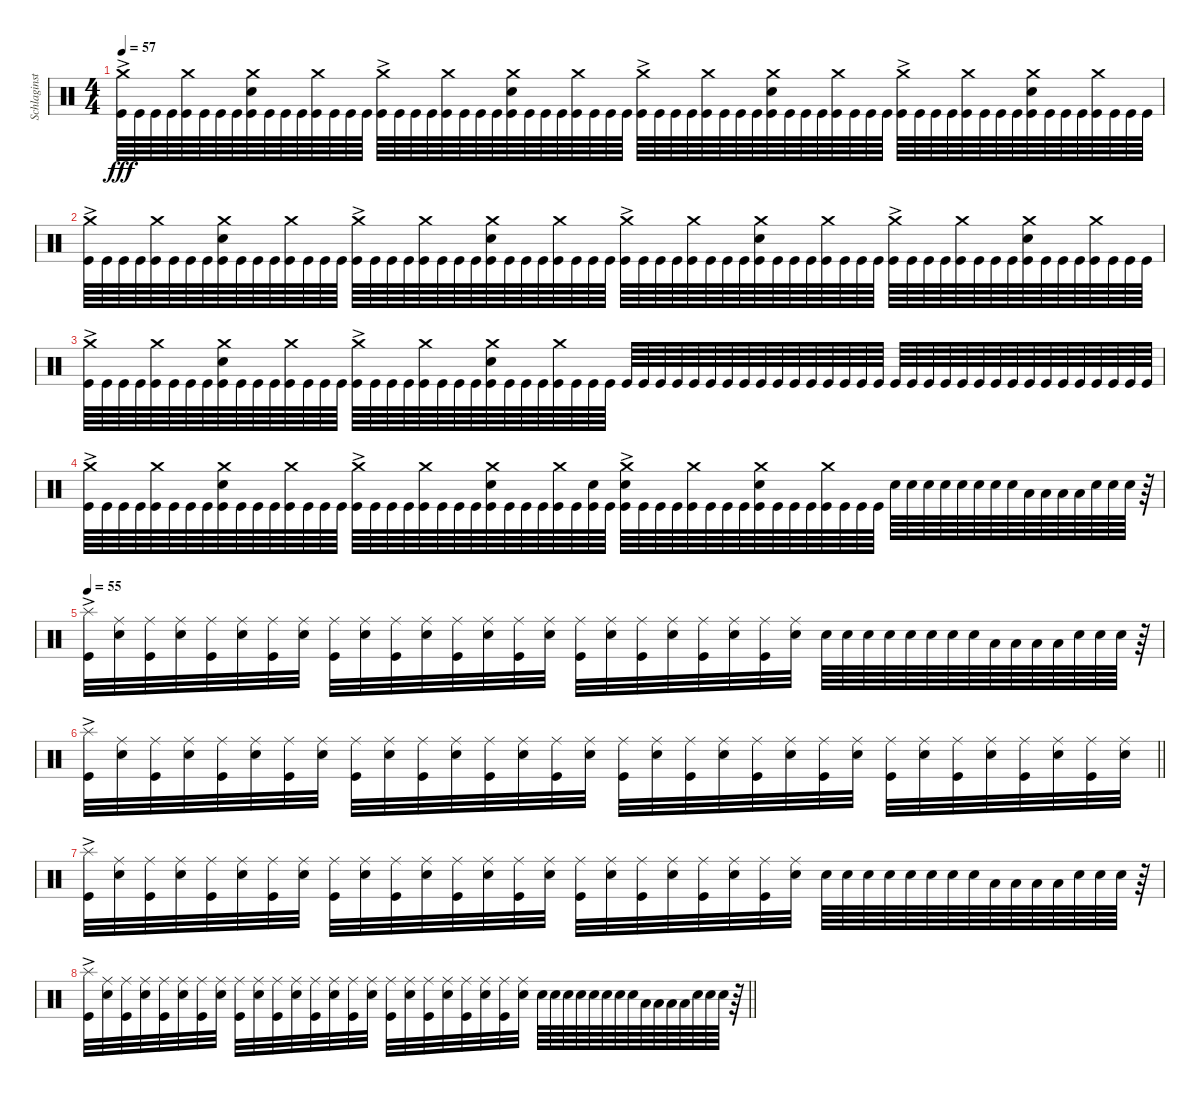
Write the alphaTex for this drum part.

\track ("Schlaginstrumente - Auswahl" "Schlaginst") {instrument percussion}
\staff {score}
\articulation defaults
\ts (4 4)
\tempo 57
\clef neutral
\ks c
("Crash medium (hit)"{ac} "Kick (hit)").64{dy fff} "Kick (hit)".64 "Kick (hit)".64 "Kick (hit)".64 ("Crash medium (hit)" "Kick (hit)").64 "Kick (hit)".64 "Kick (hit)".64 "Kick (hit)".64 ("Crash medium (hit)" "Snare (hit) 2" "Kick (hit)").64 "Kick (hit)".64 "Kick (hit)".64 "Kick (hit)".64 ("Crash medium (hit)" "Kick (hit)").64 "Kick (hit)".64 "Kick (hit)".64 "Kick (hit)".64 ("Crash medium (hit)"{ac} "Kick (hit)").64 "Kick (hit)".64 "Kick (hit)".64 "Kick (hit)".64 ("Crash medium (hit)" "Kick (hit)").64 "Kick (hit)".64 "Kick (hit)".64 "Kick (hit)".64 ("Crash medium (hit)" "Snare (hit) 2" "Kick (hit)").64 "Kick (hit)".64 "Kick (hit)".64 "Kick (hit)".64 ("Crash medium (hit)" "Kick (hit)").64 "Kick (hit)".64 "Kick (hit)".64 "Kick (hit)".64 ("Crash medium (hit)"{ac} "Kick (hit)").64 "Kick (hit)".64 "Kick (hit)".64 "Kick (hit)".64 ("Crash medium (hit)" "Kick (hit)").64 "Kick (hit)".64 "Kick (hit)".64 "Kick (hit)".64 ("Crash medium (hit)" "Snare (hit) 2" "Kick (hit)").64 "Kick (hit)".64 "Kick (hit)".64 "Kick (hit)".64 ("Crash medium (hit)" "Kick (hit)").64 "Kick (hit)".64 "Kick (hit)".64 "Kick (hit)".64 ("Crash medium (hit)"{ac} "Kick (hit)").64 "Kick (hit)".64 "Kick (hit)".64 "Kick (hit)".64 ("Crash medium (hit)" "Kick (hit)").64 "Kick (hit)".64 "Kick (hit)".64 "Kick (hit)".64 ("Crash medium (hit)" "Snare (hit) 2" "Kick (hit)").64 "Kick (hit)".64 "Kick (hit)".64 "Kick (hit)".64 ("Crash medium (hit)" "Kick (hit)").64 "Kick (hit)".64 "Kick (hit)".64 "Kick (hit)".64 |
("Crash medium (hit)"{ac} "Kick (hit)").64 "Kick (hit)".64 "Kick (hit)".64 "Kick (hit)".64 ("Crash medium (hit)" "Kick (hit)").64 "Kick (hit)".64 "Kick (hit)".64 "Kick (hit)".64 ("Crash medium (hit)" "Snare (hit) 2" "Kick (hit)").64 "Kick (hit)".64 "Kick (hit)".64 "Kick (hit)".64 ("Crash medium (hit)" "Kick (hit)").64 "Kick (hit)".64 "Kick (hit)".64 "Kick (hit)".64 ("Crash medium (hit)"{ac} "Kick (hit)").64 "Kick (hit)".64 "Kick (hit)".64 "Kick (hit)".64 ("Crash medium (hit)" "Kick (hit)").64 "Kick (hit)".64 "Kick (hit)".64 "Kick (hit)".64 ("Crash medium (hit)" "Snare (hit) 2" "Kick (hit)").64 "Kick (hit)".64 "Kick (hit)".64 "Kick (hit)".64 ("Crash medium (hit)" "Kick (hit)").64 "Kick (hit)".64 "Kick (hit)".64 "Kick (hit)".64 ("Crash medium (hit)"{ac} "Kick (hit)").64 "Kick (hit)".64 "Kick (hit)".64 "Kick (hit)".64 ("Crash medium (hit)" "Kick (hit)").64 "Kick (hit)".64 "Kick (hit)".64 "Kick (hit)".64 ("Crash medium (hit)" "Snare (hit) 2" "Kick (hit)").64 "Kick (hit)".64 "Kick (hit)".64 "Kick (hit)".64 ("Crash medium (hit)" "Kick (hit)").64 "Kick (hit)".64 "Kick (hit)".64 "Kick (hit)".64 ("Crash medium (hit)"{ac} "Kick (hit)").64 "Kick (hit)".64 "Kick (hit)".64 "Kick (hit)".64 ("Crash medium (hit)" "Kick (hit)").64 "Kick (hit)".64 "Kick (hit)".64 "Kick (hit)".64 ("Crash medium (hit)" "Snare (hit) 2" "Kick (hit)").64 "Kick (hit)".64 "Kick (hit)".64 "Kick (hit)".64 ("Crash medium (hit)" "Kick (hit)").64 "Kick (hit)".64 "Kick (hit)".64 "Kick (hit)".64 |
("Crash medium (hit)"{ac} "Kick (hit)").64 "Kick (hit)".64 "Kick (hit)".64 "Kick (hit)".64 ("Crash medium (hit)" "Kick (hit)").64 "Kick (hit)".64 "Kick (hit)".64 "Kick (hit)".64 ("Crash medium (hit)" "Snare (hit) 2" "Kick (hit)").64 "Kick (hit)".64 "Kick (hit)".64 "Kick (hit)".64 ("Crash medium (hit)" "Kick (hit)").64 "Kick (hit)".64 "Kick (hit)".64 "Kick (hit)".64 ("Crash medium (hit)"{ac} "Kick (hit)").64 "Kick (hit)".64 "Kick (hit)".64 "Kick (hit)".64 ("Crash medium (hit)" "Kick (hit)").64 "Kick (hit)".64 "Kick (hit)".64 "Kick (hit)".64 ("Crash medium (hit)" "Snare (hit) 2" "Kick (hit)").64 "Kick (hit)".64 "Kick (hit)".64 "Kick (hit)".64 ("Crash medium (hit)" "Kick (hit)").64 "Kick (hit)".64 "Kick (hit)".64 "Kick (hit)".64 "Kick (hit)".64 "Kick (hit)".64 "Kick (hit)".64 "Kick (hit)".64 "Kick (hit)".64 "Kick (hit)".64 "Kick (hit)".64 "Kick (hit)".64 "Kick (hit)".64 "Kick (hit)".64 "Kick (hit)".64 "Kick (hit)".64 "Kick (hit)".64 "Kick (hit)".64 "Kick (hit)".64 "Kick (hit)".64 "Kick (hit)".64 "Kick (hit)".64 "Kick (hit)".64 "Kick (hit)".64 "Kick (hit)".64 "Kick (hit)".64 "Kick (hit)".64 "Kick (hit)".64 "Kick (hit)".64 "Kick (hit)".64 "Kick (hit)".64 "Kick (hit)".64 "Kick (hit)".64 "Kick (hit)".64 "Kick (hit)".64 "Kick (hit)".64 |
("Crash medium (hit)"{ac} "Kick (hit)").64 "Kick (hit)".64 "Kick (hit)".64 "Kick (hit)".64 ("Crash medium (hit)" "Kick (hit)").64 "Kick (hit)".64 "Kick (hit)".64 "Kick (hit)".64 ("Crash medium (hit)" "Snare (hit) 2" "Kick (hit)").64 "Kick (hit)".64 "Kick (hit)".64 "Kick (hit)".64 ("Crash medium (hit)" "Kick (hit)").64 "Kick (hit)".64 "Kick (hit)".64 "Kick (hit)".64 ("Crash medium (hit)"{ac} "Kick (hit)").64 "Kick (hit)".64 "Kick (hit)".64 "Kick (hit)".64 ("Crash medium (hit)" "Kick (hit)").64 "Kick (hit)".64 "Kick (hit)".64 "Kick (hit)".64 ("Crash medium (hit)" "Snare (hit) 2" "Kick (hit)").64 "Kick (hit)".64 "Kick (hit)".64 "Kick (hit)".64 ("Crash medium (hit)" "Kick (hit)").64 "Kick (hit)".64 ("Snare (hit) 2" "Kick (hit)").64 "Kick (hit)".64 ("Crash medium (hit)"{ac} "Snare (hit) 2" "Kick (hit)").64 "Kick (hit)".64 "Kick (hit)".64 "Kick (hit)".64 ("Crash medium (hit)" "Kick (hit)").64 "Kick (hit)".64 "Kick (hit)".64 "Kick (hit)".64 ("Crash medium (hit)" "Snare (hit) 2" "Kick (hit)").64 "Kick (hit)".64 "Kick (hit)".64 "Kick (hit)".64 ("Crash medium (hit)" "Kick (hit)").64 "Kick (hit)".64 "Kick (hit)".64 "Kick (hit)".64 "Snare (hit) 2".64 "Snare (hit) 2".64 "Snare (hit) 2".64 "Snare (hit) 2".64 "Snare (hit) 2".64 "Snare (hit) 2".64 "Snare (hit) 2".64 "Snare (hit) 2".64 "Low Tom (hit)".64 "Low Tom (hit)".64 "Low Tom (hit)".64 "Low Tom (hit)".64 "Snare (hit) 2".64 "Snare (hit) 2".64 "Snare (hit) 2".64 r.64 |
\tempo 55
("Kick (hit)" "Splash (hit)"{ac}).32 ("Snare (hit) 2" "Ride (middle)").32 ("Kick (hit)" "Ride (middle)").32 ("Snare (hit) 2" "Ride (middle)").32 ("Kick (hit)" "Ride (middle)").32 ("Snare (hit) 2" "Ride (middle)").32 ("Kick (hit)" "Ride (middle)").32 ("Snare (hit) 2" "Ride (middle)").32 ("Kick (hit)" "Ride (middle)").32 ("Snare (hit) 2" "Ride (middle)").32 ("Kick (hit)" "Ride (middle)").32 ("Snare (hit) 2" "Ride (middle)").32 ("Kick (hit)" "Ride (middle)").32 ("Snare (hit) 2" "Ride (middle)").32 ("Kick (hit)" "Ride (middle)").32 ("Snare (hit) 2" "Ride (middle)").32 ("Kick (hit)" "Ride (middle)").32 ("Snare (hit) 2" "Ride (middle)").32 ("Kick (hit)" "Ride (middle)").32 ("Snare (hit) 2" "Ride (middle)").32 ("Kick (hit)" "Ride (middle)").32 ("Snare (hit) 2" "Ride (middle)").32 ("Kick (hit)" "Ride (middle)").32 ("Snare (hit) 2" "Ride (middle)").32 "Snare (hit) 2".64 "Snare (hit) 2".64 "Snare (hit) 2".64 "Snare (hit) 2".64 "Snare (hit) 2".64 "Snare (hit) 2".64 "Snare (hit) 2".64 "Snare (hit) 2".64 "Low Tom (hit)".64 "Low Tom (hit)".64 "Low Tom (hit)".64 "Low Tom (hit)".64 "Snare (hit) 2".64 "Snare (hit) 2".64 "Snare (hit) 2".64 r.64 |
\barLineRight lightlight
("Kick (hit)" "Splash (hit)"{ac}).32 ("Snare (hit) 2" "Ride (middle)").32 ("Kick (hit)" "Ride (middle)").32 ("Snare (hit) 2" "Ride (middle)").32 ("Kick (hit)" "Ride (middle)").32 ("Snare (hit) 2" "Ride (middle)").32 ("Kick (hit)" "Ride (middle)").32 ("Snare (hit) 2" "Ride (middle)").32 ("Kick (hit)" "Ride (middle)").32 ("Snare (hit) 2" "Ride (middle)").32 ("Kick (hit)" "Ride (middle)").32 ("Snare (hit) 2" "Ride (middle)").32 ("Kick (hit)" "Ride (middle)").32 ("Snare (hit) 2" "Ride (middle)").32 ("Kick (hit)" "Ride (middle)").32 ("Snare (hit) 2" "Ride (middle)").32 ("Kick (hit)" "Ride (middle)").32 ("Snare (hit) 2" "Ride (middle)").32 ("Kick (hit)" "Ride (middle)").32 ("Snare (hit) 2" "Ride (middle)").32 ("Kick (hit)" "Ride (middle)").32 ("Snare (hit) 2" "Ride (middle)").32 ("Kick (hit)" "Ride (middle)").32 ("Snare (hit) 2" "Ride (middle)").32 ("Kick (hit)" "Ride (middle)").32 ("Snare (hit) 2" "Ride (middle)").32 ("Kick (hit)" "Ride (middle)").32 ("Snare (hit) 2" "Ride (middle)").32 ("Kick (hit)" "Ride (middle)").32 ("Snare (hit) 2" "Ride (middle)").32 ("Kick (hit)" "Ride (middle)").32 ("Snare (hit) 2" "Ride (middle)").32 |
("Kick (hit)" "Splash (hit)"{ac}).32 ("Snare (hit) 2" "Ride (middle)").32 ("Kick (hit)" "Ride (middle)").32 ("Snare (hit) 2" "Ride (middle)").32 ("Kick (hit)" "Ride (middle)").32 ("Snare (hit) 2" "Ride (middle)").32 ("Kick (hit)" "Ride (middle)").32 ("Snare (hit) 2" "Ride (middle)").32 ("Kick (hit)" "Ride (middle)").32 ("Snare (hit) 2" "Ride (middle)").32 ("Kick (hit)" "Ride (middle)").32 ("Snare (hit) 2" "Ride (middle)").32 ("Kick (hit)" "Ride (middle)").32 ("Snare (hit) 2" "Ride (middle)").32 ("Kick (hit)" "Ride (middle)").32 ("Snare (hit) 2" "Ride (middle)").32 ("Kick (hit)" "Ride (middle)").32 ("Snare (hit) 2" "Ride (middle)").32 ("Kick (hit)" "Ride (middle)").32 ("Snare (hit) 2" "Ride (middle)").32 ("Kick (hit)" "Ride (middle)").32 ("Snare (hit) 2" "Ride (middle)").32 ("Kick (hit)" "Ride (middle)").32 ("Snare (hit) 2" "Ride (middle)").32 "Snare (hit) 2".64 "Snare (hit) 2".64 "Snare (hit) 2".64 "Snare (hit) 2".64 "Snare (hit) 2".64 "Snare (hit) 2".64 "Snare (hit) 2".64 "Snare (hit) 2".64 "Low Tom (hit)".64 "Low Tom (hit)".64 "Low Tom (hit)".64 "Low Tom (hit)".64 "Snare (hit) 2".64 "Snare (hit) 2".64 "Snare (hit) 2".64 r.64 |
\barLineRight lightlight
("Kick (hit)" "Splash (hit)"{ac}).32 ("Snare (hit) 2" "Ride (middle)").32 ("Kick (hit)" "Ride (middle)").32 ("Snare (hit) 2" "Ride (middle)").32 ("Kick (hit)" "Ride (middle)").32 ("Snare (hit) 2" "Ride (middle)").32 ("Kick (hit)" "Ride (middle)").32 ("Snare (hit) 2" "Ride (middle)").32 ("Kick (hit)" "Ride (middle)").32 ("Snare (hit) 2" "Ride (middle)").32 ("Kick (hit)" "Ride (middle)").32 ("Snare (hit) 2" "Ride (middle)").32 ("Kick (hit)" "Ride (middle)").32 ("Snare (hit) 2" "Ride (middle)").32 ("Kick (hit)" "Ride (middle)").32 ("Snare (hit) 2" "Ride (middle)").32 ("Kick (hit)" "Ride (middle)").32 ("Snare (hit) 2" "Ride (middle)").32 ("Kick (hit)" "Ride (middle)").32 ("Snare (hit) 2" "Ride (middle)").32 ("Kick (hit)" "Ride (middle)").32 ("Snare (hit) 2" "Ride (middle)").32 ("Kick (hit)" "Ride (middle)").32 ("Snare (hit) 2" "Ride (middle)").32 "Snare (hit) 2".64 "Snare (hit) 2".64 "Snare (hit) 2".64 "Snare (hit) 2".64 "Snare (hit) 2".64 "Snare (hit) 2".64 "Snare (hit) 2".64 "Snare (hit) 2".64 "Low Tom (hit)".64 "Low Tom (hit)".64 "Low Tom (hit)".64 "Low Tom (hit)".64 "Snare (hit) 2".64 "Snare (hit) 2".64 "Snare (hit) 2".64 r.64
